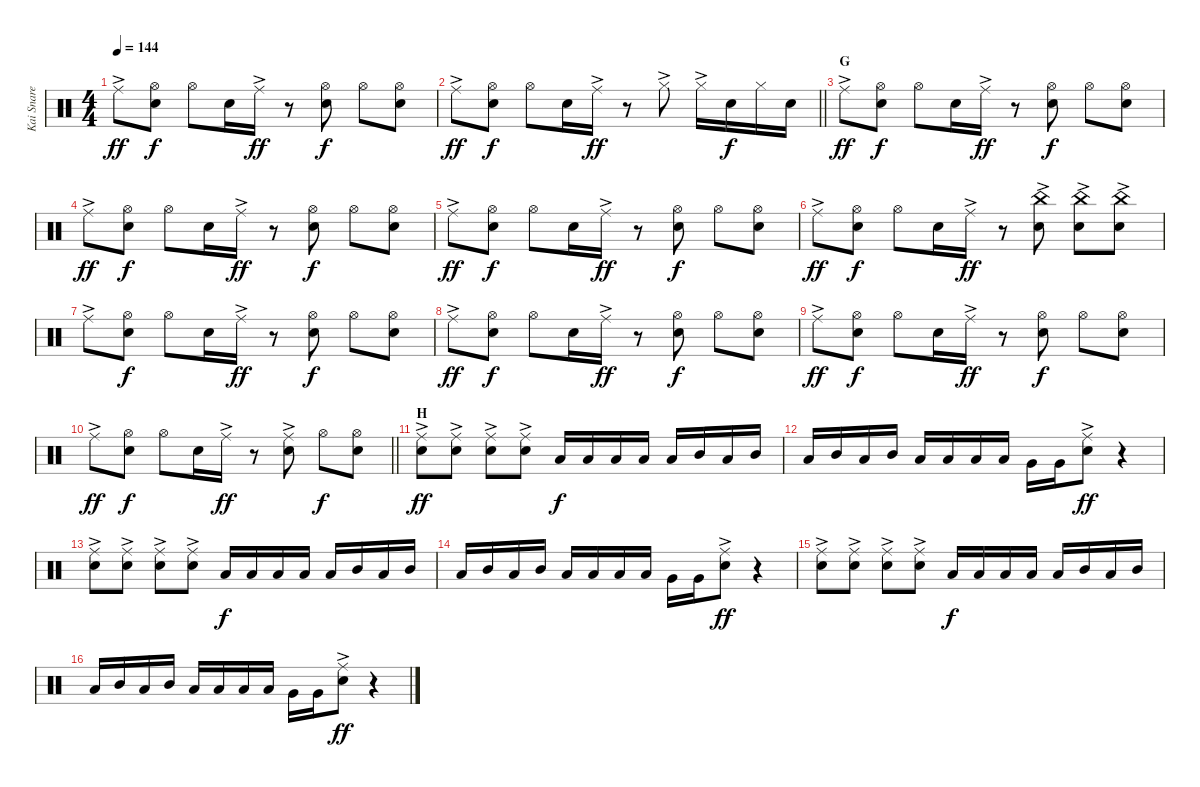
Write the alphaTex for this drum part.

\track ("Kai Snare" "Kai Snare") {instrument percussion}
\staff {score}
\articulation defaults
\ts (4 4)
\tempo 144
\clef neutral
\ks c "Ride (middle)"{ac}.8{dy ff}
("Hi-Hat (open)" "Snare (hit) 2").8{dy f} "Hi-Hat (open)".8 "Snare (hit) 2".16 "Ride (middle)"{ac}.16{dy ff} r.8 ("Hi-Hat (open)" "Snare (hit) 2").8{dy f} "Hi-Hat (open)".8 ("Hi-Hat (open)" "Snare (hit) 2").8 |
\barLineRight lightlight "Ride (middle)"{ac}.8{dy ff}
("Hi-Hat (open)" "Snare (hit) 2").8{dy f} "Hi-Hat (open)".8 "Snare (hit) 2".16 "Ride (middle)"{ac}.16{dy ff} r.8 "Hi-Hat (closed)"{ac}.8 "Hi-Hat (closed)"{ac}.16 "Snare (hit) 2".16{dy f} "Hi-Hat (closed)".16 "Snare (hit) 2".16 |
\section ("" "G")
"Ride (middle)"{ac}.8{dy ff} ("Hi-Hat (open)" "Snare (hit) 2").8{dy f} "Hi-Hat (open)".8 "Snare (hit) 2".16 "Ride (middle)"{ac}.16{dy ff} r.8 ("Hi-Hat (open)" "Snare (hit) 2").8{dy f} "Hi-Hat (open)".8 ("Hi-Hat (open)" "Snare (hit) 2").8 |
"Ride (middle)"{ac}.8{dy ff} ("Hi-Hat (open)" "Snare (hit) 2").8{dy f} "Hi-Hat (open)".8 "Snare (hit) 2".16 "Ride (middle)"{ac}.16{dy ff} r.8 ("Hi-Hat (open)" "Snare (hit) 2").8{dy f} "Hi-Hat (open)".8 ("Hi-Hat (open)" "Snare (hit) 2").8 |
"Ride (middle)"{ac}.8{dy ff} ("Hi-Hat (open)" "Snare (hit) 2").8{dy f} "Hi-Hat (open)".8 "Snare (hit) 2".16 "Ride (middle)"{ac}.16{dy ff} r.8 ("Hi-Hat (open)" "Snare (hit) 2").8{dy f} "Hi-Hat (open)".8 ("Hi-Hat (open)" "Snare (hit) 2").8 |
"Ride (middle)"{ac}.8{dy ff} ("Hi-Hat (open)" "Snare (hit) 2").8{dy f} "Hi-Hat (open)".8 "Snare (hit) 2".16 "Ride (middle)"{ac}.16{dy ff} r.8 ("China (hit)"{ac} "Snare (hit) 2").8 ("China (hit)"{ac} "Snare (hit) 2").8 ("China (hit)"{ac} "Snare (hit) 2").8 |
"Ride (middle)"{ac}.8 ("Hi-Hat (open)" "Snare (hit) 2").8{dy f} "Hi-Hat (open)".8 "Snare (hit) 2".16 "Ride (middle)"{ac}.16{dy ff} r.8 ("Hi-Hat (open)" "Snare (hit) 2").8{dy f} "Hi-Hat (open)".8 ("Hi-Hat (open)" "Snare (hit) 2").8 |
"Ride (middle)"{ac}.8{dy ff} ("Hi-Hat (open)" "Snare (hit) 2").8{dy f} "Hi-Hat (open)".8 "Snare (hit) 2".16 "Ride (middle)"{ac}.16{dy ff} r.8 ("Hi-Hat (open)" "Snare (hit) 2").8{dy f} "Hi-Hat (open)".8 ("Hi-Hat (open)" "Snare (hit) 2").8 |
"Ride (middle)"{ac}.8{dy ff} ("Hi-Hat (open)" "Snare (hit) 2").8{dy f} "Hi-Hat (open)".8 "Snare (hit) 2".16 "Ride (middle)"{ac}.16{dy ff} r.8 ("Hi-Hat (open)" "Snare (hit) 2").8{dy f} "Hi-Hat (open)".8 ("Hi-Hat (open)" "Snare (hit) 2").8 |
\barLineRight lightlight "Ride (middle)"{ac}.8{dy ff}
("Hi-Hat (open)" "Snare (hit) 2").8{dy f} "Hi-Hat (open)".8 "Snare (hit) 2".16 "Ride (middle)"{ac}.16{dy ff} r.8 ("Ride (middle)"{ac} "Snare (hit) 2").8 "Hi-Hat (open)".8{dy f} ("Hi-Hat (open)" "Snare (hit) 2").8 |
\section ("" "H")
("Ride (middle)"{ac} "Snare (hit) 2").8{dy ff} ("Ride (middle)"{ac} "Snare (hit) 2").8 ("Ride (middle)"{ac} "Snare (hit) 2").8 ("Ride (middle)"{ac} "Snare (hit) 2").8 "Low Tom (hit)".16{dy f} "Low Tom (hit)".16 "Low Tom (hit)".16 "Low Tom (hit)".16 "Low Tom (hit)".16 "Mid Tom (hit)".16 "Low Tom (hit)".16 "Mid Tom (hit)".16 |
"Low Tom (hit)".16 "Mid Tom (hit)".16 "Low Tom (hit)".16 "Mid Tom (hit)".16 "Low Tom (hit)".16 "Low Tom (hit)".16 "Low Tom (hit)".16 "Low Tom (hit)".16 "Very Low Tom (hit)".16 "Very Low Tom (hit)".16 ("Ride (middle)"{ac} "Snare (hit) 2").8{dy ff} r.4 |
("Ride (middle)"{ac} "Snare (hit) 2").8 ("Ride (middle)"{ac} "Snare (hit) 2").8 ("Ride (middle)"{ac} "Snare (hit) 2").8 ("Ride (middle)"{ac} "Snare (hit) 2").8 "Low Tom (hit)".16{dy f} "Low Tom (hit)".16 "Low Tom (hit)".16 "Low Tom (hit)".16 "Low Tom (hit)".16 "Mid Tom (hit)".16 "Low Tom (hit)".16 "Mid Tom (hit)".16 |
"Low Tom (hit)".16 "Mid Tom (hit)".16 "Low Tom (hit)".16 "Mid Tom (hit)".16 "Low Tom (hit)".16 "Low Tom (hit)".16 "Low Tom (hit)".16 "Low Tom (hit)".16 "Very Low Tom (hit)".16 "Very Low Tom (hit)".16 ("Ride (middle)"{ac} "Snare (hit) 2").8{dy ff} r.4 |
("Ride (middle)"{ac} "Snare (hit) 2").8 ("Ride (middle)"{ac} "Snare (hit) 2").8 ("Ride (middle)"{ac} "Snare (hit) 2").8 ("Ride (middle)"{ac} "Snare (hit) 2").8 "Low Tom (hit)".16{dy f} "Low Tom (hit)".16 "Low Tom (hit)".16 "Low Tom (hit)".16 "Low Tom (hit)".16 "Mid Tom (hit)".16 "Low Tom (hit)".16 "Mid Tom (hit)".16 |
"Low Tom (hit)".16 "Mid Tom (hit)".16 "Low Tom (hit)".16 "Mid Tom (hit)".16 "Low Tom (hit)".16 "Low Tom (hit)".16 "Low Tom (hit)".16 "Low Tom (hit)".16 "Very Low Tom (hit)".16 "Very Low Tom (hit)".16 ("Ride (middle)"{ac} "Snare (hit) 2").8{dy ff} r.4
